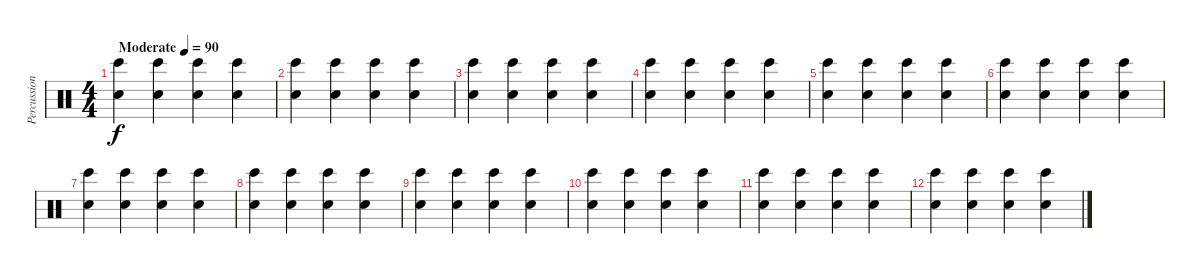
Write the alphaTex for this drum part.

\track ("Percussion" "Percussion") {instrument percussion}
\staff {score}
\articulation defaults
\ts (4 4)
\tempo (90 "Moderate")
\clef neutral
\ks c
("Bongo High (hit)" "Hand Clap (hit)").4{dy f} ("Bongo High (hit)" "Hand Clap (hit)").4 ("Hand Clap (hit)" "Bongo High (hit)").4 ("Hand Clap (hit)" "Bongo High (hit)").4 |
("Hand Clap (hit)" "Bongo High (hit)").4 ("Bongo High (hit)" "Hand Clap (hit)").4 ("Hand Clap (hit)" "Bongo High (hit)").4 ("Hand Clap (hit)" "Bongo High (hit)").4 |
("Hand Clap (hit)" "Bongo High (hit)").4 ("Hand Clap (hit)" "Bongo High (hit)").4 ("Hand Clap (hit)" "Bongo High (hit)").4 ("Hand Clap (hit)" "Bongo High (hit)").4 |
("Hand Clap (hit)" "Bongo High (hit)").4 ("Hand Clap (hit)" "Bongo High (hit)").4 ("Hand Clap (hit)" "Bongo High (hit)").4 ("Hand Clap (hit)" "Bongo High (hit)").4 |
("Hand Clap (hit)" "Bongo High (hit)").4 ("Hand Clap (hit)" "Bongo High (hit)").4 ("Hand Clap (hit)" "Bongo High (hit)").4 ("Hand Clap (hit)" "Bongo High (hit)").4 |
("Hand Clap (hit)" "Bongo High (hit)").4 ("Hand Clap (hit)" "Bongo High (hit)").4 ("Hand Clap (hit)" "Bongo High (hit)").4 ("Hand Clap (hit)" "Bongo High (hit)").4 |
("Hand Clap (hit)" "Bongo High (hit)").4 ("Hand Clap (hit)" "Bongo High (hit)").4 ("Hand Clap (hit)" "Bongo High (hit)").4 ("Hand Clap (hit)" "Bongo High (hit)").4 |
("Hand Clap (hit)" "Bongo High (hit)").4 ("Hand Clap (hit)" "Bongo High (hit)").4 ("Hand Clap (hit)" "Bongo High (hit)").4 ("Hand Clap (hit)" "Bongo High (hit)").4 |
("Hand Clap (hit)" "Bongo High (hit)").4 ("Hand Clap (hit)" "Bongo High (hit)").4 ("Hand Clap (hit)" "Bongo High (hit)").4 ("Hand Clap (hit)" "Bongo High (hit)").4 |
("Hand Clap (hit)" "Bongo High (hit)").4 ("Hand Clap (hit)" "Bongo High (hit)").4 ("Hand Clap (hit)" "Bongo High (hit)").4 ("Hand Clap (hit)" "Bongo High (hit)").4 |
("Hand Clap (hit)" "Bongo High (hit)").4 ("Hand Clap (hit)" "Bongo High (hit)").4 ("Hand Clap (hit)" "Bongo High (hit)").4 ("Hand Clap (hit)" "Bongo High (hit)").4 |
("Hand Clap (hit)" "Bongo High (hit)").4 ("Hand Clap (hit)" "Bongo High (hit)").4 ("Hand Clap (hit)" "Bongo High (hit)").4 ("Hand Clap (hit)" "Bongo High (hit)").4
